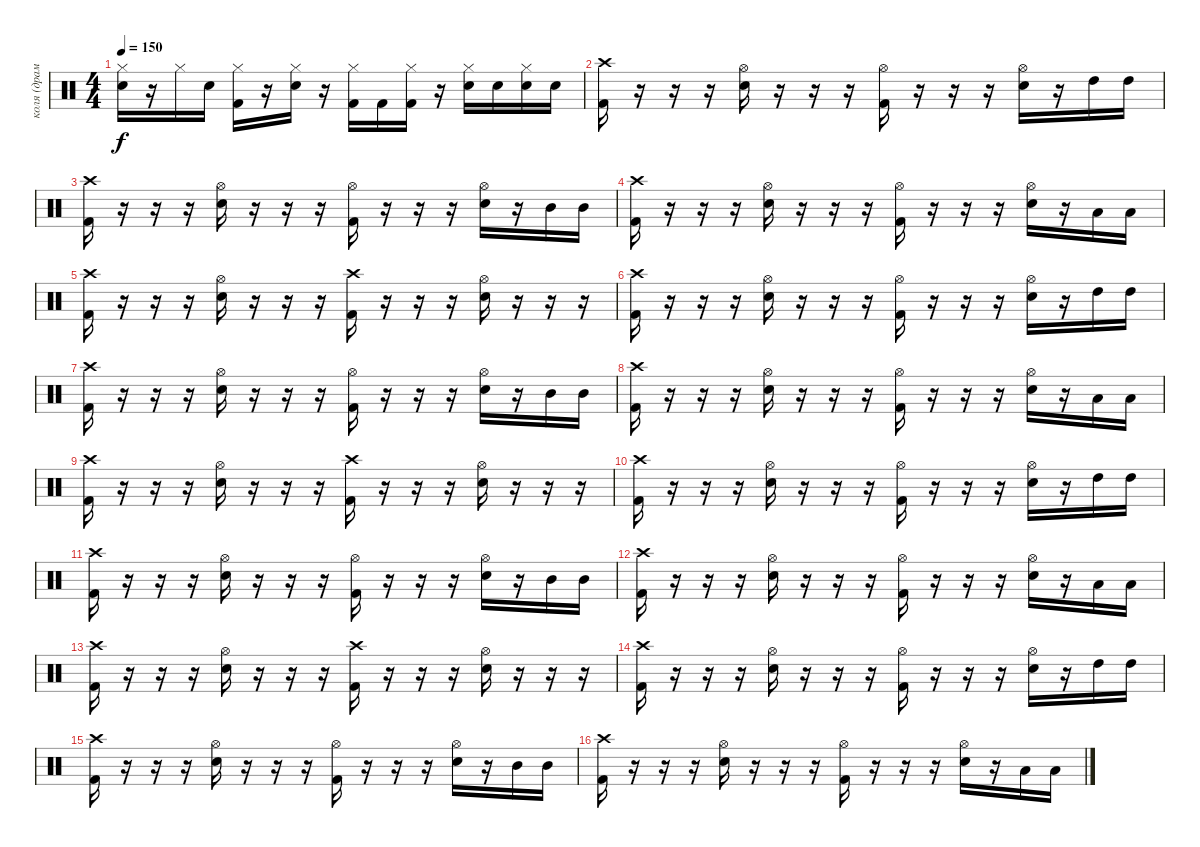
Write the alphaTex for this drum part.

\track ("коля (драммы)" "коля (драм") {instrument percussion}
\staff {score}
\articulation defaults
\ts (4 4)
\tempo 150
\clef neutral
\ks c
("Snare (hit) 2" "Hi-Hat (closed)").16{dy f} r.16 "Hi-Hat (closed)".16 "Snare (hit) 2".16 ("Kick (hit) 2" "Hi-Hat (closed)").16 r.16 ("Snare (hit) 2" "Hi-Hat (closed)").16 r.16 ("Kick (hit) 2" "Hi-Hat (closed)").16 "Kick (hit) 2".16 ("Kick (hit) 2" "Hi-Hat (closed)").16 r.16 ("Snare (hit) 2" "Hi-Hat (closed)").16 "Snare (hit) 2".16 ("Snare (hit) 2" "Hi-Hat (closed)").16 "Snare (hit) 2".16 |
("Kick (hit) 2" "Crash high (hit)").16 r.16 r.16 r.16 ("Snare (hit) 2" "Hi-Hat (open)").16 r.16 r.16 r.16 ("Kick (hit) 2" "Hi-Hat (open)").16 r.16 r.16 r.16 ("Snare (hit) 2" "Hi-Hat (open)").16 r.16 "High Tom (hit)".16 "High Tom (hit)".16 |
("Kick (hit) 2" "Crash high (hit)").16 r.16 r.16 r.16 ("Snare (hit) 2" "Hi-Hat (open)").16 r.16 r.16 r.16 ("Kick (hit) 2" "Hi-Hat (open)").16 r.16 r.16 r.16 ("Snare (hit) 2" "Hi-Hat (open)").16 r.16 "Mid Tom (hit)".16 "Mid Tom (hit)".16 |
("Kick (hit) 2" "Crash high (hit)").16 r.16 r.16 r.16 ("Snare (hit) 2" "Hi-Hat (open)").16 r.16 r.16 r.16 ("Kick (hit) 2" "Hi-Hat (open)").16 r.16 r.16 r.16 ("Snare (hit) 2" "Hi-Hat (open)").16 r.16 "Low Tom (hit)".16 "Low Tom (hit)".16 |
("Kick (hit) 2" "Crash high (hit)").16 r.16 r.16 r.16 ("Snare (hit) 2" "Hi-Hat (open)").16 r.16 r.16 r.16 ("Kick (hit) 2" "Crash high (hit)").16 r.16 r.16 r.16 ("Snare (hit) 2" "Hi-Hat (open)").16 r.16 r.16 r.16 |
("Kick (hit) 2" "Crash high (hit)").16 r.16 r.16 r.16 ("Snare (hit) 2" "Hi-Hat (open)").16 r.16 r.16 r.16 ("Kick (hit) 2" "Hi-Hat (open)").16 r.16 r.16 r.16 ("Snare (hit) 2" "Hi-Hat (open)").16 r.16 "High Tom (hit)".16 "High Tom (hit)".16 |
("Kick (hit) 2" "Crash high (hit)").16 r.16 r.16 r.16 ("Snare (hit) 2" "Hi-Hat (open)").16 r.16 r.16 r.16 ("Kick (hit) 2" "Hi-Hat (open)").16 r.16 r.16 r.16 ("Snare (hit) 2" "Hi-Hat (open)").16 r.16 "Mid Tom (hit)".16 "Mid Tom (hit)".16 |
("Kick (hit) 2" "Crash high (hit)").16 r.16 r.16 r.16 ("Snare (hit) 2" "Hi-Hat (open)").16 r.16 r.16 r.16 ("Kick (hit) 2" "Hi-Hat (open)").16 r.16 r.16 r.16 ("Snare (hit) 2" "Hi-Hat (open)").16 r.16 "Low Tom (hit)".16 "Low Tom (hit)".16 |
("Kick (hit) 2" "Crash high (hit)").16 r.16 r.16 r.16 ("Snare (hit) 2" "Hi-Hat (open)").16 r.16 r.16 r.16 ("Kick (hit) 2" "Crash high (hit)").16 r.16 r.16 r.16 ("Snare (hit) 2" "Hi-Hat (open)").16 r.16 r.16 r.16 |
("Kick (hit) 2" "Crash high (hit)").16 r.16 r.16 r.16 ("Snare (hit) 2" "Hi-Hat (open)").16 r.16 r.16 r.16 ("Kick (hit) 2" "Hi-Hat (open)").16 r.16 r.16 r.16 ("Snare (hit) 2" "Hi-Hat (open)").16 r.16 "High Tom (hit)".16 "High Tom (hit)".16 |
("Kick (hit) 2" "Crash high (hit)").16 r.16 r.16 r.16 ("Snare (hit) 2" "Hi-Hat (open)").16 r.16 r.16 r.16 ("Kick (hit) 2" "Hi-Hat (open)").16 r.16 r.16 r.16 ("Snare (hit) 2" "Hi-Hat (open)").16 r.16 "Mid Tom (hit)".16 "Mid Tom (hit)".16 |
("Kick (hit) 2" "Crash high (hit)").16 r.16 r.16 r.16 ("Snare (hit) 2" "Hi-Hat (open)").16 r.16 r.16 r.16 ("Kick (hit) 2" "Hi-Hat (open)").16 r.16 r.16 r.16 ("Snare (hit) 2" "Hi-Hat (open)").16 r.16 "Low Tom (hit)".16 "Low Tom (hit)".16 |
("Kick (hit) 2" "Crash high (hit)").16 r.16 r.16 r.16 ("Snare (hit) 2" "Hi-Hat (open)").16 r.16 r.16 r.16 ("Kick (hit) 2" "Crash high (hit)").16 r.16 r.16 r.16 ("Snare (hit) 2" "Hi-Hat (open)").16 r.16 r.16 r.16 |
("Kick (hit) 2" "Crash high (hit)").16 r.16 r.16 r.16 ("Snare (hit) 2" "Hi-Hat (open)").16 r.16 r.16 r.16 ("Kick (hit) 2" "Hi-Hat (open)").16 r.16 r.16 r.16 ("Snare (hit) 2" "Hi-Hat (open)").16 r.16 "High Tom (hit)".16 "High Tom (hit)".16 |
("Kick (hit) 2" "Crash high (hit)").16 r.16 r.16 r.16 ("Snare (hit) 2" "Hi-Hat (open)").16 r.16 r.16 r.16 ("Kick (hit) 2" "Hi-Hat (open)").16 r.16 r.16 r.16 ("Snare (hit) 2" "Hi-Hat (open)").16 r.16 "Mid Tom (hit)".16 "Mid Tom (hit)".16 |
("Kick (hit) 2" "Crash high (hit)").16 r.16 r.16 r.16 ("Snare (hit) 2" "Hi-Hat (open)").16 r.16 r.16 r.16 ("Kick (hit) 2" "Hi-Hat (open)").16 r.16 r.16 r.16 ("Snare (hit) 2" "Hi-Hat (open)").16 r.16 "Low Tom (hit)".16 "Low Tom (hit)".16
